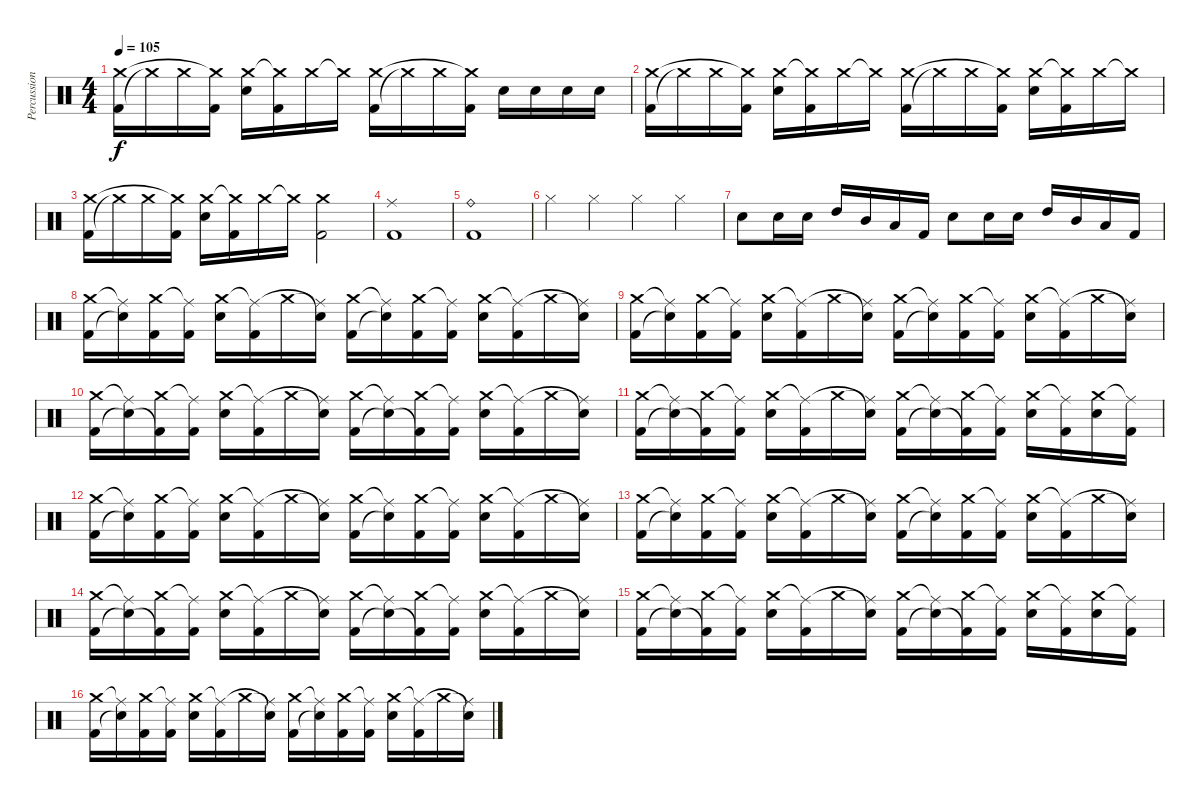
\track ("Percussions" "Percussion") {instrument percussion}
\staff {score}
\articulation defaults
\ts (4 4)
\tempo 105
\clef neutral
\ks c
("Kick (hit) 2" "Crash medium (hit)").16{dy f} "Crash medium (hit)"{t}.16 "Crash medium (hit)".16 ("Kick (hit) 2" "Crash medium (hit)"{t}).16 ("Electric Snare (hit)" "Crash medium (hit)").16 ("Kick (hit) 2" "Crash medium (hit)"{t}).16 "Crash medium (hit)".16 "Crash medium (hit)"{t}.16 ("Kick (hit) 2" "Crash medium (hit)").16 "Crash medium (hit)"{t}.16 "Crash medium (hit)".16 ("Kick (hit) 2" "Crash medium (hit)"{t}).16 "Electric Snare (hit)".16 "Electric Snare (hit)".16 "Electric Snare (hit)".16 "Electric Snare (hit)".16 |
("Kick (hit) 2" "Crash medium (hit)").16 "Crash medium (hit)"{t}.16 "Crash medium (hit)".16 ("Kick (hit) 2" "Crash medium (hit)"{t}).16 ("Electric Snare (hit)" "Crash medium (hit)").16 ("Kick (hit) 2" "Crash medium (hit)"{t}).16 "Crash medium (hit)".16 "Crash medium (hit)"{t}.16 ("Kick (hit) 2" "Crash medium (hit)").16 "Crash medium (hit)"{t}.16 "Crash medium (hit)".16 ("Kick (hit) 2" "Crash medium (hit)"{t}).16 ("Electric Snare (hit)" "Crash medium (hit)").16 ("Kick (hit) 2" "Crash medium (hit)"{t}).16 "Crash medium (hit)".16 "Crash medium (hit)"{t}.16 |
("Kick (hit) 2" "Crash medium (hit)").16 "Crash medium (hit)"{t}.16 "Crash medium (hit)".16 ("Kick (hit) 2" "Crash medium (hit)"{t}).16 ("Electric Snare (hit)" "Crash medium (hit)").16 ("Kick (hit) 2" "Crash medium (hit)"{t}).16 "Crash medium (hit)".16 "Crash medium (hit)"{t}.16 ("Kick (hit) 2" "Crash medium (hit)").2 |
("Ride (middle)" "Kick (hit) 2").1 |
("Ride (bell)" "Kick (hit) 2").1 |
"Hi-Hat (closed)".4 "Hi-Hat (closed)".4 "Hi-Hat (closed)".4 "Hi-Hat (closed)".4 |
"Electric Snare (hit)".8 "Electric Snare (hit)".16 "Electric Snare (hit)".16 "High Tom (hit)".16 "Mid Tom (hit)".16 "Low Tom (hit)".16 "Kick (hit) 2".16 "Electric Snare (hit)".8 "Electric Snare (hit)".16 "Electric Snare (hit)".16 "High Tom (hit)".16 "Mid Tom (hit)".16 "Low Tom (hit)".16 "Kick (hit) 2".16 |
("Kick (hit) 2" "Crash medium (hit)").16 ("Snare (hit)"{t} "Ride (middle)"{t}).16 ("Kick (hit) 2" "Crash medium (hit)").16 ("Kick (hit) 2" "Ride (middle)"{t}).16 ("Electric Snare (hit)" "Crash medium (hit)").16 ("Kick (hit) 2" "Ride (middle)"{t}).16 "Crash medium (hit)".16 ("Snare (hit)"{t} "Ride (middle)"{t}).16 ("Kick (hit) 2" "Crash medium (hit)").16 ("Snare (hit)"{t} "Ride (middle)"{t}).16 ("Kick (hit) 2" "Crash medium (hit)").16 ("Kick (hit) 2" "Ride (middle)"{t}).16 ("Electric Snare (hit)" "Crash medium (hit)").16 ("Kick (hit) 2" "Ride (middle)"{t}).16 "Crash medium (hit)".16 ("Snare (hit)"{t} "Ride (middle)"{t}).16 |
("Kick (hit) 2" "Crash medium (hit)").16 ("Snare (hit)"{t} "Ride (middle)"{t}).16 ("Kick (hit) 2" "Crash medium (hit)").16 ("Kick (hit) 2" "Ride (middle)"{t}).16 ("Electric Snare (hit)" "Crash medium (hit)").16 ("Kick (hit) 2" "Ride (middle)"{t}).16 "Crash medium (hit)".16 ("Snare (hit)"{t} "Ride (middle)"{t}).16 ("Kick (hit) 2" "Crash medium (hit)").16 ("Snare (hit)"{t} "Ride (middle)"{t}).16 ("Kick (hit) 2" "Crash medium (hit)").16 ("Kick (hit) 2" "Ride (middle)"{t}).16 ("Electric Snare (hit)" "Crash medium (hit)").16 ("Kick (hit) 2" "Ride (middle)"{t}).16 "Crash medium (hit)".16 ("Snare (hit)"{t} "Ride (middle)"{t}).16 |
("Kick (hit) 2" "Crash medium (hit)").16 ("Snare (hit)"{t} "Ride (middle)"{t}).16 ("Kick (hit) 2"{t} "Crash medium (hit)").16 ("Kick (hit) 2" "Ride (middle)"{t}).16 ("Electric Snare (hit)" "Crash medium (hit)").16 ("Kick (hit) 2" "Ride (middle)"{t}).16 "Crash medium (hit)".16 ("Snare (hit)"{t} "Ride (middle)"{t}).16 ("Kick (hit) 2" "Crash medium (hit)").16 ("Snare (hit)"{t} "Ride (middle)"{t}).16 ("Kick (hit) 2"{t} "Crash medium (hit)").16 ("Kick (hit) 2" "Ride (middle)"{t}).16 ("Electric Snare (hit)" "Crash medium (hit)").16 ("Kick (hit) 2" "Ride (middle)"{t}).16 "Crash medium (hit)".16 ("Snare (hit)"{t} "Ride (middle)"{t}).16 |
("Kick (hit) 2" "Crash medium (hit)").16 ("Snare (hit)"{t} "Ride (middle)"{t}).16 ("Kick (hit) 2"{t} "Crash medium (hit)").16 ("Kick (hit) 2" "Ride (middle)"{t}).16 ("Electric Snare (hit)" "Crash medium (hit)").16 ("Kick (hit) 2" "Ride (middle)"{t}).16 "Crash medium (hit)".16 ("Snare (hit)"{t} "Ride (middle)"{t}).16 ("Kick (hit) 2" "Crash medium (hit)").16 ("Snare (hit)"{t} "Ride (middle)"{t}).16 ("Kick (hit) 2"{t} "Crash medium (hit)").16 ("Kick (hit) 2" "Ride (middle)"{t}).16 ("Electric Snare (hit)" "Crash medium (hit)").16 ("Kick (hit) 2" "Ride (middle)"{t}).16 ("Electric Snare (hit)" "Crash medium (hit)").16 ("Kick (hit) 2" "Ride (middle)"{t}).16 |
("Kick (hit) 2" "Crash medium (hit)").16 ("Snare (hit)"{t} "Ride (middle)"{t}).16 ("Kick (hit) 2" "Crash medium (hit)").16 ("Kick (hit) 2" "Ride (middle)"{t}).16 ("Electric Snare (hit)" "Crash medium (hit)").16 ("Kick (hit) 2" "Ride (middle)"{t}).16 "Crash medium (hit)".16 ("Snare (hit)"{t} "Ride (middle)"{t}).16 ("Kick (hit) 2" "Crash medium (hit)").16 ("Snare (hit)"{t} "Ride (middle)"{t}).16 ("Kick (hit) 2" "Crash medium (hit)").16 ("Kick (hit) 2" "Ride (middle)"{t}).16 ("Electric Snare (hit)" "Crash medium (hit)").16 ("Kick (hit) 2" "Ride (middle)"{t}).16 "Crash medium (hit)".16 ("Snare (hit)"{t} "Ride (middle)"{t}).16 |
("Kick (hit) 2" "Crash medium (hit)").16 ("Snare (hit)"{t} "Ride (middle)"{t}).16 ("Kick (hit) 2" "Crash medium (hit)").16 ("Kick (hit) 2" "Ride (middle)"{t}).16 ("Electric Snare (hit)" "Crash medium (hit)").16 ("Kick (hit) 2" "Ride (middle)"{t}).16 "Crash medium (hit)".16 ("Snare (hit)"{t} "Ride (middle)"{t}).16 ("Kick (hit) 2" "Crash medium (hit)").16 ("Snare (hit)"{t} "Ride (middle)"{t}).16 ("Kick (hit) 2" "Crash medium (hit)").16 ("Kick (hit) 2" "Ride (middle)"{t}).16 ("Electric Snare (hit)" "Crash medium (hit)").16 ("Kick (hit) 2" "Ride (middle)"{t}).16 "Crash medium (hit)".16 ("Snare (hit)"{t} "Ride (middle)"{t}).16 |
("Kick (hit) 2" "Crash medium (hit)").16 ("Snare (hit)"{t} "Ride (middle)"{t}).16 ("Kick (hit) 2"{t} "Crash medium (hit)").16 ("Kick (hit) 2" "Ride (middle)"{t}).16 ("Electric Snare (hit)" "Crash medium (hit)").16 ("Kick (hit) 2" "Ride (middle)"{t}).16 "Crash medium (hit)".16 ("Snare (hit)"{t} "Ride (middle)"{t}).16 ("Kick (hit) 2" "Crash medium (hit)").16 ("Snare (hit)"{t} "Ride (middle)"{t}).16 ("Kick (hit) 2"{t} "Crash medium (hit)").16 ("Kick (hit) 2" "Ride (middle)"{t}).16 ("Electric Snare (hit)" "Crash medium (hit)").16 ("Kick (hit) 2" "Ride (middle)"{t}).16 "Crash medium (hit)".16 ("Snare (hit)"{t} "Ride (middle)"{t}).16 |
("Kick (hit) 2" "Crash medium (hit)").16 ("Snare (hit)"{t} "Ride (middle)"{t}).16 ("Kick (hit) 2"{t} "Crash medium (hit)").16 ("Kick (hit) 2" "Ride (middle)"{t}).16 ("Electric Snare (hit)" "Crash medium (hit)").16 ("Kick (hit) 2" "Ride (middle)"{t}).16 "Crash medium (hit)".16 ("Snare (hit)"{t} "Ride (middle)"{t}).16 ("Kick (hit) 2" "Crash medium (hit)").16 ("Snare (hit)"{t} "Ride (middle)"{t}).16 ("Kick (hit) 2"{t} "Crash medium (hit)").16 ("Kick (hit) 2" "Ride (middle)"{t}).16 ("Electric Snare (hit)" "Crash medium (hit)").16 ("Kick (hit) 2" "Ride (middle)"{t}).16 ("Electric Snare (hit)" "Crash medium (hit)").16 ("Kick (hit) 2" "Ride (middle)"{t}).16 |
("Kick (hit) 2" "Crash medium (hit)").16 ("Snare (hit)"{t} "Ride (middle)"{t}).16 ("Kick (hit) 2" "Crash medium (hit)").16 ("Kick (hit) 2" "Ride (middle)"{t}).16 ("Electric Snare (hit)" "Crash medium (hit)").16 ("Kick (hit) 2" "Ride (middle)"{t}).16 "Crash medium (hit)".16 ("Snare (hit)"{t} "Ride (middle)"{t}).16 ("Kick (hit) 2" "Crash medium (hit)").16 ("Snare (hit)"{t} "Ride (middle)"{t}).16 ("Kick (hit) 2" "Crash medium (hit)").16 ("Kick (hit) 2" "Ride (middle)"{t}).16 ("Electric Snare (hit)" "Crash medium (hit)").16 ("Kick (hit) 2" "Ride (middle)"{t}).16 "Crash medium (hit)".16 ("Snare (hit)"{t} "Ride (middle)"{t}).16
